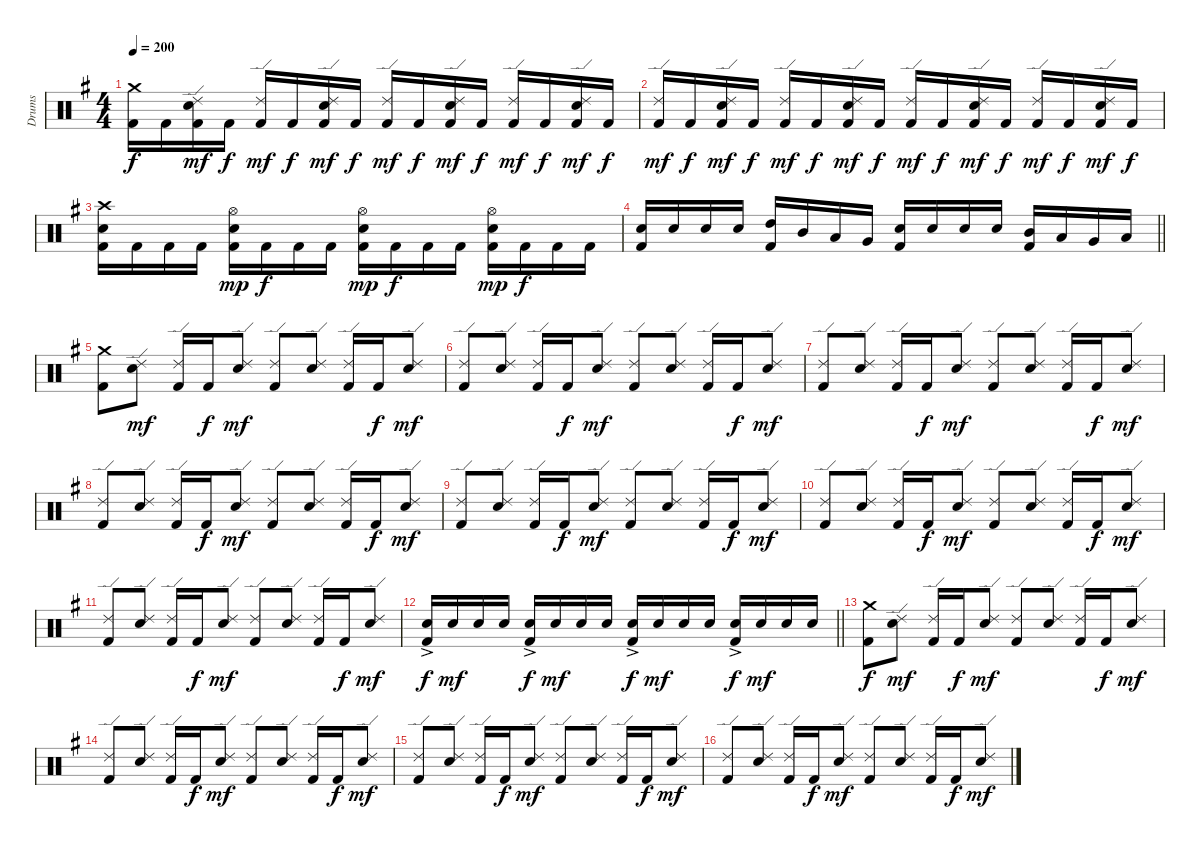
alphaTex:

\track ("Drums" "Drums") {instrument percussion}
\staff {score}
\articulation defaults
\ts (4 4)
\tempo 200
\clef neutral
\ks g
("Crash medium (hit)" "Kick (hit) 2").16{dy f} "Kick (hit) 2".16 ("Ride (edge) 2" "Snare (hit) 2" "Kick (hit) 2").16{dy mf} "Kick (hit) 2".16{dy f} ("Ride (edge) 2" "Kick (hit) 2").16{dy mf} "Kick (hit) 2".16{dy f} ("Ride (edge) 2" "Snare (hit) 2" "Kick (hit) 2").16{dy mf} "Kick (hit) 2".16{dy f} ("Ride (edge) 2" "Kick (hit) 2").16{dy mf} "Kick (hit) 2".16{dy f} ("Ride (edge) 2" "Snare (hit) 2" "Kick (hit) 2").16{dy mf} "Kick (hit) 2".16{dy f} ("Ride (edge) 2" "Kick (hit) 2").16{dy mf} "Kick (hit) 2".16{dy f} ("Ride (edge) 2" "Snare (hit) 2" "Kick (hit) 2").16{dy mf} "Kick (hit) 2".16{dy f} |
("Ride (edge) 2" "Kick (hit) 2").16{dy mf} "Kick (hit) 2".16{dy f} ("Ride (edge) 2" "Snare (hit) 2" "Kick (hit) 2").16{dy mf} "Kick (hit) 2".16{dy f} ("Ride (edge) 2" "Kick (hit) 2").16{dy mf} "Kick (hit) 2".16{dy f} ("Ride (edge) 2" "Snare (hit) 2" "Kick (hit) 2").16{dy mf} "Kick (hit) 2".16{dy f} ("Ride (edge) 2" "Kick (hit) 2").16{dy mf} "Kick (hit) 2".16{dy f} ("Ride (edge) 2" "Snare (hit) 2" "Kick (hit) 2").16{dy mf} "Kick (hit) 2".16{dy f} ("Ride (edge) 2" "Kick (hit) 2").16{dy mf} "Kick (hit) 2".16{dy f} ("Ride (edge) 2" "Snare (hit) 2" "Kick (hit) 2").16{dy mf} "Kick (hit) 2".16{dy f} |
("Crash high (hit)" "Snare (hit) 2" "Kick (hit) 2").16 "Kick (hit) 2".16 "Kick (hit) 2".16 "Kick (hit) 2".16 ("Hi-Hat (open)" "Snare (hit) 2" "Kick (hit) 2").16{dy mp} "Kick (hit) 2".16{dy f} "Kick (hit) 2".16 "Kick (hit) 2".16 ("Hi-Hat (open)" "Snare (hit) 2" "Kick (hit) 2").16{dy mp} "Kick (hit) 2".16{dy f} "Kick (hit) 2".16 "Kick (hit) 2".16 ("Hi-Hat (open)" "Snare (hit) 2" "Kick (hit) 2").16{dy mp} "Kick (hit) 2".16{dy f} "Kick (hit) 2".16 "Kick (hit) 2".16 |
\barLineRight lightlight
("Snare (hit) 2" "Kick (hit) 2").16 "Snare (hit) 2".16 "Snare (hit) 2".16 "Snare (hit) 2".16 ("High Tom (hit)" "Kick (hit) 2").16 "Mid Tom (hit)".16 "Low Tom (hit)".16 "Very Low Tom (hit)".16 ("Snare (hit) 2" "Kick (hit) 2").16 "Snare (hit) 2".16 "Snare (hit) 2".16 "Snare (hit) 2".16 ("Mid Tom (hit)" "Kick (hit) 2").16 "Low Tom (hit)".16 "Very Low Tom (hit)".16 "Low Floor Tom (hit)".16 |
\section ("" "")
("Crash medium (hit)" "Kick (hit) 2").8 ("Ride (edge) 2" "Snare (hit) 2").8{dy mf} ("Ride (edge) 2" "Kick (hit) 2").16 "Kick (hit) 2".16{dy f} ("Ride (edge) 2" "Snare (hit) 2").8{dy mf} ("Ride (edge) 2" "Kick (hit) 2").8 ("Ride (edge) 2" "Snare (hit) 2").8 ("Ride (edge) 2" "Kick (hit) 2").16 "Kick (hit) 2".16{dy f} ("Ride (edge) 2" "Snare (hit) 2").8{dy mf} |
("Ride (edge) 2" "Kick (hit) 2").8 ("Ride (edge) 2" "Snare (hit) 2").8 ("Ride (edge) 2" "Kick (hit) 2").16 "Kick (hit) 2".16{dy f} ("Ride (edge) 2" "Snare (hit) 2").8{dy mf} ("Ride (edge) 2" "Kick (hit) 2").8 ("Ride (edge) 2" "Snare (hit) 2").8 ("Ride (edge) 2" "Kick (hit) 2").16 "Kick (hit) 2".16{dy f} ("Ride (edge) 2" "Snare (hit) 2").8{dy mf} |
("Ride (edge) 2" "Kick (hit) 2").8 ("Ride (edge) 2" "Snare (hit) 2").8 ("Ride (edge) 2" "Kick (hit) 2").16 "Kick (hit) 2".16{dy f} ("Ride (edge) 2" "Snare (hit) 2").8{dy mf} ("Ride (edge) 2" "Kick (hit) 2").8 ("Ride (edge) 2" "Snare (hit) 2").8 ("Ride (edge) 2" "Kick (hit) 2").16 "Kick (hit) 2".16{dy f} ("Ride (edge) 2" "Snare (hit) 2").8{dy mf} |
("Ride (edge) 2" "Kick (hit) 2").8 ("Ride (edge) 2" "Snare (hit) 2").8 ("Ride (edge) 2" "Kick (hit) 2").16 "Kick (hit) 2".16{dy f} ("Ride (edge) 2" "Snare (hit) 2").8{dy mf} ("Ride (edge) 2" "Kick (hit) 2").8 ("Ride (edge) 2" "Snare (hit) 2").8 ("Ride (edge) 2" "Kick (hit) 2").16 "Kick (hit) 2".16{dy f} ("Ride (edge) 2" "Snare (hit) 2").8{dy mf} |
("Ride (edge) 2" "Kick (hit) 2").8 ("Ride (edge) 2" "Snare (hit) 2").8 ("Ride (edge) 2" "Kick (hit) 2").16 "Kick (hit) 2".16{dy f} ("Ride (edge) 2" "Snare (hit) 2").8{dy mf} ("Ride (edge) 2" "Kick (hit) 2").8 ("Ride (edge) 2" "Snare (hit) 2").8 ("Ride (edge) 2" "Kick (hit) 2").16 "Kick (hit) 2".16{dy f} ("Ride (edge) 2" "Snare (hit) 2").8{dy mf} |
("Ride (edge) 2" "Kick (hit) 2").8 ("Ride (edge) 2" "Snare (hit) 2").8 ("Ride (edge) 2" "Kick (hit) 2").16 "Kick (hit) 2".16{dy f} ("Ride (edge) 2" "Snare (hit) 2").8{dy mf} ("Ride (edge) 2" "Kick (hit) 2").8 ("Ride (edge) 2" "Snare (hit) 2").8 ("Ride (edge) 2" "Kick (hit) 2").16 "Kick (hit) 2".16{dy f} ("Ride (edge) 2" "Snare (hit) 2").8{dy mf} |
("Ride (edge) 2" "Kick (hit) 2").8 ("Ride (edge) 2" "Snare (hit) 2").8 ("Ride (edge) 2" "Kick (hit) 2").16 "Kick (hit) 2".16{dy f} ("Ride (edge) 2" "Snare (hit) 2").8{dy mf} ("Ride (edge) 2" "Kick (hit) 2").8 ("Ride (edge) 2" "Snare (hit) 2").8 ("Ride (edge) 2" "Kick (hit) 2").16 "Kick (hit) 2".16{dy f} ("Ride (edge) 2" "Snare (hit) 2").8{dy mf} |
\barLineRight lightlight
("Snare (hit) 2"{ac} "Kick (hit) 2").16{dy f} "Snare (hit) 2".16{dy mf} "Snare (hit) 2".16 "Snare (hit) 2".16 ("Snare (hit) 2"{ac} "Kick (hit) 2").16{dy f} "Snare (hit) 2".16{dy mf} "Snare (hit) 2".16 "Snare (hit) 2".16 ("Snare (hit) 2"{ac} "Kick (hit) 2").16{dy f} "Snare (hit) 2".16{dy mf} "Snare (hit) 2".16 "Snare (hit) 2".16 ("Snare (hit) 2"{ac} "Kick (hit) 2").16{dy f} "Snare (hit) 2".16{dy mf} "Snare (hit) 2".16 "Snare (hit) 2".16 |
\section ("" "")
("Crash medium (hit)" "Kick (hit) 2").8{dy f} ("Ride (edge) 2" "Snare (hit) 2").8{dy mf} ("Ride (edge) 2" "Kick (hit) 2").16 "Kick (hit) 2".16{dy f} ("Ride (edge) 2" "Snare (hit) 2").8{dy mf} ("Ride (edge) 2" "Kick (hit) 2").8 ("Ride (edge) 2" "Snare (hit) 2").8 ("Ride (edge) 2" "Kick (hit) 2").16 "Kick (hit) 2".16{dy f} ("Ride (edge) 2" "Snare (hit) 2").8{dy mf} |
("Ride (edge) 2" "Kick (hit) 2").8 ("Ride (edge) 2" "Snare (hit) 2").8 ("Ride (edge) 2" "Kick (hit) 2").16 "Kick (hit) 2".16{dy f} ("Ride (edge) 2" "Snare (hit) 2").8{dy mf} ("Ride (edge) 2" "Kick (hit) 2").8 ("Ride (edge) 2" "Snare (hit) 2").8 ("Ride (edge) 2" "Kick (hit) 2").16 "Kick (hit) 2".16{dy f} ("Ride (edge) 2" "Snare (hit) 2").8{dy mf} |
("Ride (edge) 2" "Kick (hit) 2").8 ("Ride (edge) 2" "Snare (hit) 2").8 ("Ride (edge) 2" "Kick (hit) 2").16 "Kick (hit) 2".16{dy f} ("Ride (edge) 2" "Snare (hit) 2").8{dy mf} ("Ride (edge) 2" "Kick (hit) 2").8 ("Ride (edge) 2" "Snare (hit) 2").8 ("Ride (edge) 2" "Kick (hit) 2").16 "Kick (hit) 2".16{dy f} ("Ride (edge) 2" "Snare (hit) 2").8{dy mf} |
("Ride (edge) 2" "Kick (hit) 2").8 ("Ride (edge) 2" "Snare (hit) 2").8 ("Ride (edge) 2" "Kick (hit) 2").16 "Kick (hit) 2".16{dy f} ("Ride (edge) 2" "Snare (hit) 2").8{dy mf} ("Ride (edge) 2" "Kick (hit) 2").8 ("Ride (edge) 2" "Snare (hit) 2").8 ("Ride (edge) 2" "Kick (hit) 2").16 "Kick (hit) 2".16{dy f} ("Ride (edge) 2" "Snare (hit) 2").8{dy mf}
